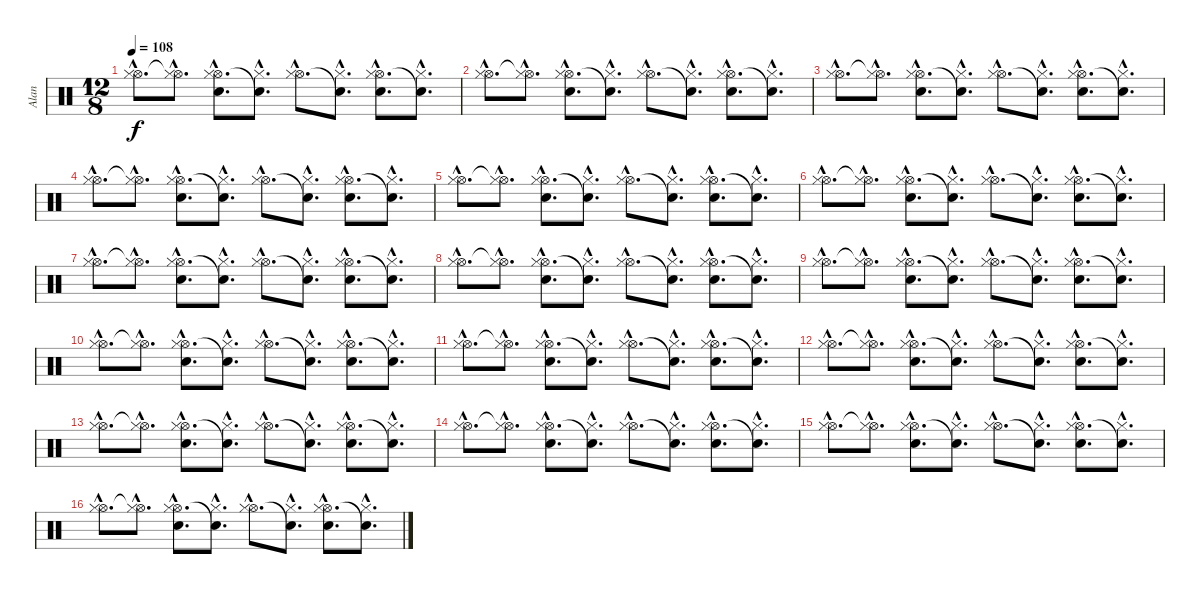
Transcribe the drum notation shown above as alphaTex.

\track ("Alan" "Alan") {instrument percussion}
\staff {score}
\articulation defaults
\ts (12 8)
\tempo 108
\clef neutral
\ks c
("Hi-Hat (open)"{hac} "Hi-Hat (closed)"{hac}).8{d dy f} ("Hi-Hat (open)"{hac t} "Hi-Hat (closed)"{hac}).8{d} ("Hi-Hat (open)"{hac} "Snare (hit) 2"{hac} "Hi-Hat (closed)"{hac}).8{d} ("Snare (hit)"{hac t} "Hi-Hat (closed)"{hac}).8{d} ("Hi-Hat (open)"{hac} "Hi-Hat (closed)"{hac}).8{d} ("Snare (hit)"{hac t} "Hi-Hat (closed)"{hac}).8{d} ("Hi-Hat (open)"{hac} "Snare (hit) 2"{hac} "Hi-Hat (closed)"{hac}).8{d} ("Snare (hit)"{hac t} "Hi-Hat (closed)"{hac}).8{d} |
("Hi-Hat (open)"{hac} "Hi-Hat (closed)"{hac}).8{d} ("Hi-Hat (open)"{hac t} "Hi-Hat (closed)"{hac}).8{d} ("Hi-Hat (open)"{hac} "Snare (hit) 2"{hac} "Hi-Hat (closed)"{hac}).8{d} ("Snare (hit)"{hac t} "Hi-Hat (closed)"{hac}).8{d} ("Hi-Hat (open)"{hac} "Hi-Hat (closed)"{hac}).8{d} ("Snare (hit)"{hac t} "Hi-Hat (closed)"{hac}).8{d} ("Hi-Hat (open)"{hac} "Snare (hit) 2"{hac} "Hi-Hat (closed)"{hac}).8{d} ("Snare (hit)"{hac t} "Hi-Hat (closed)"{hac}).8{d} |
("Hi-Hat (open)"{hac} "Hi-Hat (closed)"{hac}).8{d} ("Hi-Hat (open)"{hac t} "Hi-Hat (closed)"{hac}).8{d} ("Hi-Hat (open)"{hac} "Snare (hit) 2"{hac} "Hi-Hat (closed)"{hac}).8{d} ("Snare (hit)"{hac t} "Hi-Hat (closed)"{hac}).8{d} ("Hi-Hat (open)"{hac} "Hi-Hat (closed)"{hac}).8{d} ("Snare (hit)"{hac t} "Hi-Hat (closed)"{hac}).8{d} ("Hi-Hat (open)"{hac} "Snare (hit) 2"{hac} "Hi-Hat (closed)"{hac}).8{d} ("Snare (hit)"{hac t} "Hi-Hat (closed)"{hac}).8{d} |
("Hi-Hat (open)"{hac} "Hi-Hat (closed)"{hac}).8{d} ("Hi-Hat (open)"{hac t} "Hi-Hat (closed)"{hac}).8{d} ("Hi-Hat (open)"{hac} "Snare (hit) 2"{hac} "Hi-Hat (closed)"{hac}).8{d} ("Snare (hit)"{hac t} "Hi-Hat (closed)"{hac}).8{d} ("Hi-Hat (open)"{hac} "Hi-Hat (closed)"{hac}).8{d} ("Snare (hit)"{hac t} "Hi-Hat (closed)"{hac}).8{d} ("Hi-Hat (open)"{hac} "Snare (hit) 2"{hac} "Hi-Hat (closed)"{hac}).8{d} ("Snare (hit)"{hac t} "Hi-Hat (closed)"{hac}).8{d} |
("Hi-Hat (open)"{hac} "Hi-Hat (closed)"{hac}).8{d} ("Hi-Hat (open)"{hac t} "Hi-Hat (closed)"{hac}).8{d} ("Hi-Hat (open)"{hac} "Snare (hit) 2"{hac} "Hi-Hat (closed)"{hac}).8{d} ("Snare (hit)"{hac t} "Hi-Hat (closed)"{hac}).8{d} ("Hi-Hat (open)"{hac} "Hi-Hat (closed)"{hac}).8{d} ("Snare (hit)"{hac t} "Hi-Hat (closed)"{hac}).8{d} ("Hi-Hat (open)"{hac} "Snare (hit) 2"{hac} "Hi-Hat (closed)"{hac}).8{d} ("Snare (hit)"{hac t} "Hi-Hat (closed)"{hac}).8{d} |
("Hi-Hat (open)"{hac} "Hi-Hat (closed)"{hac}).8{d} ("Hi-Hat (open)"{hac t} "Hi-Hat (closed)"{hac}).8{d} ("Hi-Hat (open)"{hac} "Snare (hit) 2"{hac} "Hi-Hat (closed)"{hac}).8{d} ("Snare (hit)"{hac t} "Hi-Hat (closed)"{hac}).8{d} ("Hi-Hat (open)"{hac} "Hi-Hat (closed)"{hac}).8{d} ("Snare (hit)"{hac t} "Hi-Hat (closed)"{hac}).8{d} ("Hi-Hat (open)"{hac} "Snare (hit) 2"{hac} "Hi-Hat (closed)"{hac}).8{d} ("Snare (hit)"{hac t} "Hi-Hat (closed)"{hac}).8{d} |
("Hi-Hat (open)"{hac} "Hi-Hat (closed)"{hac}).8{d} ("Hi-Hat (open)"{hac t} "Hi-Hat (closed)"{hac}).8{d} ("Hi-Hat (open)"{hac} "Snare (hit) 2"{hac} "Hi-Hat (closed)"{hac}).8{d} ("Snare (hit)"{hac t} "Hi-Hat (closed)"{hac}).8{d} ("Hi-Hat (open)"{hac} "Hi-Hat (closed)"{hac}).8{d} ("Snare (hit)"{hac t} "Hi-Hat (closed)"{hac}).8{d} ("Hi-Hat (open)"{hac} "Snare (hit) 2"{hac} "Hi-Hat (closed)"{hac}).8{d} ("Snare (hit)"{hac t} "Hi-Hat (closed)"{hac}).8{d} |
("Hi-Hat (open)"{hac} "Hi-Hat (closed)"{hac}).8{d} ("Hi-Hat (open)"{hac t} "Hi-Hat (closed)"{hac}).8{d} ("Hi-Hat (open)"{hac} "Snare (hit) 2"{hac} "Hi-Hat (closed)"{hac}).8{d} ("Snare (hit)"{hac t} "Hi-Hat (closed)"{hac}).8{d} ("Hi-Hat (open)"{hac} "Hi-Hat (closed)"{hac}).8{d} ("Snare (hit)"{hac t} "Hi-Hat (closed)"{hac}).8{d} ("Hi-Hat (open)"{hac} "Snare (hit) 2"{hac} "Hi-Hat (closed)"{hac}).8{d} ("Snare (hit)"{hac t} "Hi-Hat (closed)"{hac}).8{d} |
("Hi-Hat (open)"{hac} "Hi-Hat (closed)"{hac}).8{d} ("Hi-Hat (open)"{hac t} "Hi-Hat (closed)"{hac}).8{d} ("Hi-Hat (open)"{hac} "Snare (hit) 2"{hac} "Hi-Hat (closed)"{hac}).8{d} ("Snare (hit)"{hac t} "Hi-Hat (closed)"{hac}).8{d} ("Hi-Hat (open)"{hac} "Hi-Hat (closed)"{hac}).8{d} ("Snare (hit)"{hac t} "Hi-Hat (closed)"{hac}).8{d} ("Hi-Hat (open)"{hac} "Snare (hit) 2"{hac} "Hi-Hat (closed)"{hac}).8{d} ("Snare (hit)"{hac t} "Hi-Hat (closed)"{hac}).8{d} |
("Hi-Hat (open)"{hac} "Hi-Hat (closed)"{hac}).8{d} ("Hi-Hat (open)"{hac t} "Hi-Hat (closed)"{hac}).8{d} ("Hi-Hat (open)"{hac} "Snare (hit) 2"{hac} "Hi-Hat (closed)"{hac}).8{d} ("Snare (hit)"{hac t} "Hi-Hat (closed)"{hac}).8{d} ("Hi-Hat (open)"{hac} "Hi-Hat (closed)"{hac}).8{d} ("Snare (hit)"{hac t} "Hi-Hat (closed)"{hac}).8{d} ("Hi-Hat (open)"{hac} "Snare (hit) 2"{hac} "Hi-Hat (closed)"{hac}).8{d} ("Snare (hit)"{hac t} "Hi-Hat (closed)"{hac}).8{d} |
("Hi-Hat (open)"{hac} "Hi-Hat (closed)"{hac}).8{d} ("Hi-Hat (open)"{hac t} "Hi-Hat (closed)"{hac}).8{d} ("Hi-Hat (open)"{hac} "Snare (hit) 2"{hac} "Hi-Hat (closed)"{hac}).8{d} ("Snare (hit)"{hac t} "Hi-Hat (closed)"{hac}).8{d} ("Hi-Hat (open)"{hac} "Hi-Hat (closed)"{hac}).8{d} ("Snare (hit)"{hac t} "Hi-Hat (closed)"{hac}).8{d} ("Hi-Hat (open)"{hac} "Snare (hit) 2"{hac} "Hi-Hat (closed)"{hac}).8{d} ("Snare (hit)"{hac t} "Hi-Hat (closed)"{hac}).8{d} |
("Hi-Hat (open)"{hac} "Hi-Hat (closed)"{hac}).8{d} ("Hi-Hat (open)"{hac t} "Hi-Hat (closed)"{hac}).8{d} ("Hi-Hat (open)"{hac} "Snare (hit) 2"{hac} "Hi-Hat (closed)"{hac}).8{d} ("Snare (hit)"{hac t} "Hi-Hat (closed)"{hac}).8{d} ("Hi-Hat (open)"{hac} "Hi-Hat (closed)"{hac}).8{d} ("Snare (hit)"{hac t} "Hi-Hat (closed)"{hac}).8{d} ("Hi-Hat (open)"{hac} "Snare (hit) 2"{hac} "Hi-Hat (closed)"{hac}).8{d} ("Snare (hit)"{hac t} "Hi-Hat (closed)"{hac}).8{d} |
("Hi-Hat (open)"{hac} "Hi-Hat (closed)"{hac}).8{d} ("Hi-Hat (open)"{hac t} "Hi-Hat (closed)"{hac}).8{d} ("Hi-Hat (open)"{hac} "Snare (hit) 2"{hac} "Hi-Hat (closed)"{hac}).8{d} ("Snare (hit)"{hac t} "Hi-Hat (closed)"{hac}).8{d} ("Hi-Hat (open)"{hac} "Hi-Hat (closed)"{hac}).8{d} ("Snare (hit)"{hac t} "Hi-Hat (closed)"{hac}).8{d} ("Hi-Hat (open)"{hac} "Snare (hit) 2"{hac} "Hi-Hat (closed)"{hac}).8{d} ("Snare (hit)"{hac t} "Hi-Hat (closed)"{hac}).8{d} |
("Hi-Hat (open)"{hac} "Hi-Hat (closed)"{hac}).8{d} ("Hi-Hat (open)"{hac t} "Hi-Hat (closed)"{hac}).8{d} ("Hi-Hat (open)"{hac} "Snare (hit) 2"{hac} "Hi-Hat (closed)"{hac}).8{d} ("Snare (hit)"{hac t} "Hi-Hat (closed)"{hac}).8{d} ("Hi-Hat (open)"{hac} "Hi-Hat (closed)"{hac}).8{d} ("Snare (hit)"{hac t} "Hi-Hat (closed)"{hac}).8{d} ("Hi-Hat (open)"{hac} "Snare (hit) 2"{hac} "Hi-Hat (closed)"{hac}).8{d} ("Snare (hit)"{hac t} "Hi-Hat (closed)"{hac}).8{d} |
("Hi-Hat (open)"{hac} "Hi-Hat (closed)"{hac}).8{d} ("Hi-Hat (open)"{hac t} "Hi-Hat (closed)"{hac}).8{d} ("Hi-Hat (open)"{hac} "Snare (hit) 2"{hac} "Hi-Hat (closed)"{hac}).8{d} ("Snare (hit)"{hac t} "Hi-Hat (closed)"{hac}).8{d} ("Hi-Hat (open)"{hac} "Hi-Hat (closed)"{hac}).8{d} ("Snare (hit)"{hac t} "Hi-Hat (closed)"{hac}).8{d} ("Hi-Hat (open)"{hac} "Snare (hit) 2"{hac} "Hi-Hat (closed)"{hac}).8{d} ("Snare (hit)"{hac t} "Hi-Hat (closed)"{hac}).8{d} |
("Hi-Hat (open)"{hac} "Hi-Hat (closed)"{hac}).8{d} ("Hi-Hat (open)"{hac t} "Hi-Hat (closed)"{hac}).8{d} ("Hi-Hat (open)"{hac} "Snare (hit) 2"{hac} "Hi-Hat (closed)"{hac}).8{d} ("Snare (hit)"{hac t} "Hi-Hat (closed)"{hac}).8{d} ("Hi-Hat (open)"{hac} "Hi-Hat (closed)"{hac}).8{d} ("Snare (hit)"{hac t} "Hi-Hat (closed)"{hac}).8{d} ("Hi-Hat (open)"{hac} "Snare (hit) 2"{hac} "Hi-Hat (closed)"{hac}).8{d} ("Snare (hit)"{hac t} "Hi-Hat (closed)"{hac}).8{d}
